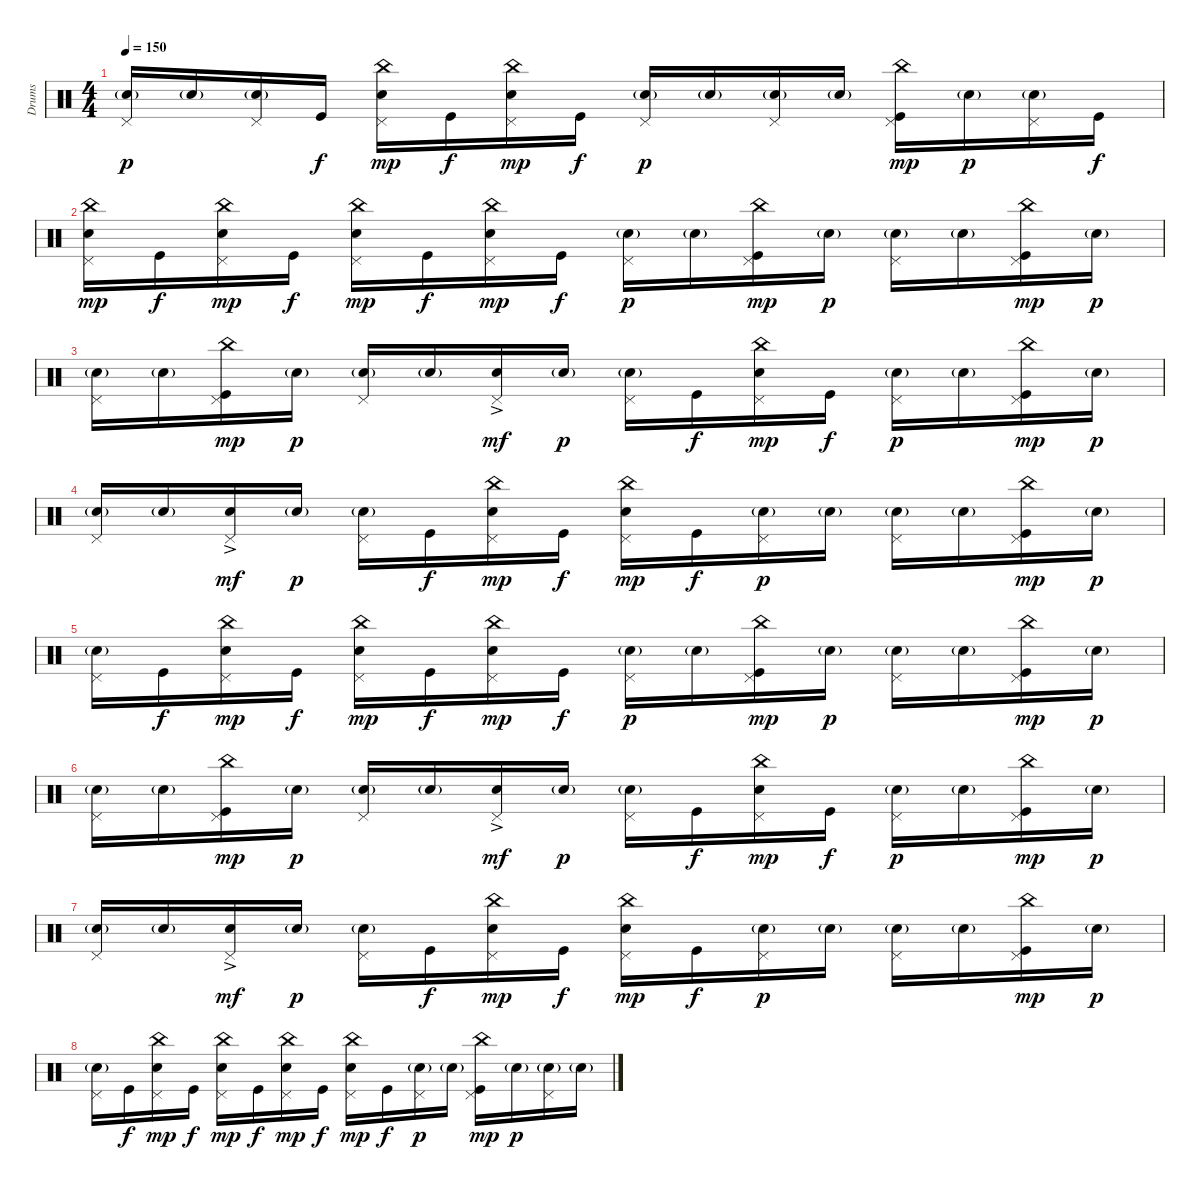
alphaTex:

\track ("Drums" "Drums") {instrument percussion}
\staff {score}
\articulation defaults
\ts (4 4)
\tempo 150
\clef neutral
\ks c
("Pedal Hi-Hat (hit)" "Electric Snare (hit)"{g}).16{dy p} "Electric Snare (hit)"{g}.16 ("Pedal Hi-Hat (hit)" "Electric Snare (hit)"{g}).16 "Kick (hit)".16{dy f} ("China (hit)" "Pedal Hi-Hat (hit)" "Electric Snare (hit)").16{dy mp} "Kick (hit)".16{dy f} ("China (hit)" "Pedal Hi-Hat (hit)" "Electric Snare (hit)").16{dy mp} "Kick (hit)".16{dy f} ("Pedal Hi-Hat (hit)" "Electric Snare (hit)"{g}).16{dy p} "Electric Snare (hit)"{g}.16 ("Pedal Hi-Hat (hit)" "Electric Snare (hit)"{g}).16 "Electric Snare (hit)"{g}.16 ("China (hit)" "Pedal Hi-Hat (hit)" "Kick (hit)").16{dy mp} "Electric Snare (hit)"{g}.16{dy p} ("Pedal Hi-Hat (hit)" "Electric Snare (hit)"{g}).16 "Kick (hit)".16{dy f} |
("China (hit)" "Pedal Hi-Hat (hit)" "Electric Snare (hit)").16{dy mp} "Kick (hit)".16{dy f} ("China (hit)" "Pedal Hi-Hat (hit)" "Electric Snare (hit)").16{dy mp} "Kick (hit)".16{dy f} ("China (hit)" "Pedal Hi-Hat (hit)" "Electric Snare (hit)").16{dy mp} "Kick (hit)".16{dy f} ("China (hit)" "Pedal Hi-Hat (hit)" "Electric Snare (hit)").16{dy mp} "Kick (hit)".16{dy f} ("Pedal Hi-Hat (hit)" "Electric Snare (hit)"{g}).16{dy p} "Electric Snare (hit)"{g}.16 ("China (hit)" "Pedal Hi-Hat (hit)" "Kick (hit)").16{dy mp} "Electric Snare (hit)"{g}.16{dy p} ("Pedal Hi-Hat (hit)" "Electric Snare (hit)"{g}).16 "Electric Snare (hit)"{g}.16 ("China (hit)" "Pedal Hi-Hat (hit)" "Kick (hit)").16{dy mp} "Electric Snare (hit)"{g}.16{dy p} |
("Pedal Hi-Hat (hit)" "Electric Snare (hit)"{g}).16 "Electric Snare (hit)"{g}.16 ("China (hit)" "Pedal Hi-Hat (hit)" "Kick (hit)").16{dy mp} "Electric Snare (hit)"{g}.16{dy p} ("Pedal Hi-Hat (hit)" "Electric Snare (hit)"{g}).16 "Electric Snare (hit)"{g}.16 ("Pedal Hi-Hat (hit)" "Electric Snare (hit)"{ac}).16{dy mf} "Electric Snare (hit)"{g}.16{dy p} ("Pedal Hi-Hat (hit)" "Electric Snare (hit)"{g}).16 "Kick (hit)".16{dy f} ("China (hit)" "Pedal Hi-Hat (hit)" "Electric Snare (hit)").16{dy mp} "Kick (hit)".16{dy f} ("Pedal Hi-Hat (hit)" "Electric Snare (hit)"{g}).16{dy p} "Electric Snare (hit)"{g}.16 ("China (hit)" "Pedal Hi-Hat (hit)" "Kick (hit)").16{dy mp} "Electric Snare (hit)"{g}.16{dy p} |
("Pedal Hi-Hat (hit)" "Electric Snare (hit)"{g}).16 "Electric Snare (hit)"{g}.16 ("Pedal Hi-Hat (hit)" "Electric Snare (hit)"{ac}).16{dy mf} "Electric Snare (hit)"{g}.16{dy p} ("Pedal Hi-Hat (hit)" "Electric Snare (hit)"{g}).16 "Kick (hit)".16{dy f} ("China (hit)" "Pedal Hi-Hat (hit)" "Electric Snare (hit)").16{dy mp} "Kick (hit)".16{dy f} ("China (hit)" "Pedal Hi-Hat (hit)" "Electric Snare (hit)").16{dy mp} "Kick (hit)".16{dy f} ("Pedal Hi-Hat (hit)" "Electric Snare (hit)"{g}).16{dy p} "Electric Snare (hit)"{g}.16 ("Pedal Hi-Hat (hit)" "Electric Snare (hit)"{g}).16 "Electric Snare (hit)"{g}.16 ("China (hit)" "Pedal Hi-Hat (hit)" "Kick (hit)").16{dy mp} "Electric Snare (hit)"{g}.16{dy p} |
("Pedal Hi-Hat (hit)" "Electric Snare (hit)"{g}).16 "Kick (hit)".16{dy f} ("China (hit)" "Pedal Hi-Hat (hit)" "Electric Snare (hit)").16{dy mp} "Kick (hit)".16{dy f} ("China (hit)" "Pedal Hi-Hat (hit)" "Electric Snare (hit)").16{dy mp} "Kick (hit)".16{dy f} ("China (hit)" "Pedal Hi-Hat (hit)" "Electric Snare (hit)").16{dy mp} "Kick (hit)".16{dy f} ("Pedal Hi-Hat (hit)" "Electric Snare (hit)"{g}).16{dy p} "Electric Snare (hit)"{g}.16 ("China (hit)" "Pedal Hi-Hat (hit)" "Kick (hit)").16{dy mp} "Electric Snare (hit)"{g}.16{dy p} ("Pedal Hi-Hat (hit)" "Electric Snare (hit)"{g}).16 "Electric Snare (hit)"{g}.16 ("China (hit)" "Pedal Hi-Hat (hit)" "Kick (hit)").16{dy mp} "Electric Snare (hit)"{g}.16{dy p} |
("Pedal Hi-Hat (hit)" "Electric Snare (hit)"{g}).16 "Electric Snare (hit)"{g}.16 ("China (hit)" "Pedal Hi-Hat (hit)" "Kick (hit)").16{dy mp} "Electric Snare (hit)"{g}.16{dy p} ("Pedal Hi-Hat (hit)" "Electric Snare (hit)"{g}).16 "Electric Snare (hit)"{g}.16 ("Pedal Hi-Hat (hit)" "Electric Snare (hit)"{ac}).16{dy mf} "Electric Snare (hit)"{g}.16{dy p} ("Pedal Hi-Hat (hit)" "Electric Snare (hit)"{g}).16 "Kick (hit)".16{dy f} ("China (hit)" "Pedal Hi-Hat (hit)" "Electric Snare (hit)").16{dy mp} "Kick (hit)".16{dy f} ("Pedal Hi-Hat (hit)" "Electric Snare (hit)"{g}).16{dy p} "Electric Snare (hit)"{g}.16 ("China (hit)" "Pedal Hi-Hat (hit)" "Kick (hit)").16{dy mp} "Electric Snare (hit)"{g}.16{dy p} |
("Pedal Hi-Hat (hit)" "Electric Snare (hit)"{g}).16 "Electric Snare (hit)"{g}.16 ("Pedal Hi-Hat (hit)" "Electric Snare (hit)"{ac}).16{dy mf} "Electric Snare (hit)"{g}.16{dy p} ("Pedal Hi-Hat (hit)" "Electric Snare (hit)"{g}).16 "Kick (hit)".16{dy f} ("China (hit)" "Pedal Hi-Hat (hit)" "Electric Snare (hit)").16{dy mp} "Kick (hit)".16{dy f} ("China (hit)" "Pedal Hi-Hat (hit)" "Electric Snare (hit)").16{dy mp} "Kick (hit)".16{dy f} ("Pedal Hi-Hat (hit)" "Electric Snare (hit)"{g}).16{dy p} "Electric Snare (hit)"{g}.16 ("Pedal Hi-Hat (hit)" "Electric Snare (hit)"{g}).16 "Electric Snare (hit)"{g}.16 ("China (hit)" "Pedal Hi-Hat (hit)" "Kick (hit)").16{dy mp} "Electric Snare (hit)"{g}.16{dy p} |
("Pedal Hi-Hat (hit)" "Electric Snare (hit)"{g}).16 "Kick (hit)".16{dy f} ("China (hit)" "Pedal Hi-Hat (hit)" "Electric Snare (hit)").16{dy mp} "Kick (hit)".16{dy f} ("China (hit)" "Pedal Hi-Hat (hit)" "Electric Snare (hit)").16{dy mp} "Kick (hit)".16{dy f} ("China (hit)" "Pedal Hi-Hat (hit)" "Electric Snare (hit)").16{dy mp} "Kick (hit)".16{dy f} ("China (hit)" "Pedal Hi-Hat (hit)" "Electric Snare (hit)").16{dy mp} "Kick (hit)".16{dy f} ("Pedal Hi-Hat (hit)" "Electric Snare (hit)"{g}).16{dy p} "Electric Snare (hit)"{g}.16 ("China (hit)" "Pedal Hi-Hat (hit)" "Kick (hit)").16{dy mp} "Electric Snare (hit)"{g}.16{dy p} ("Pedal Hi-Hat (hit)" "Electric Snare (hit)"{g}).16 "Electric Snare (hit)"{g}.16
